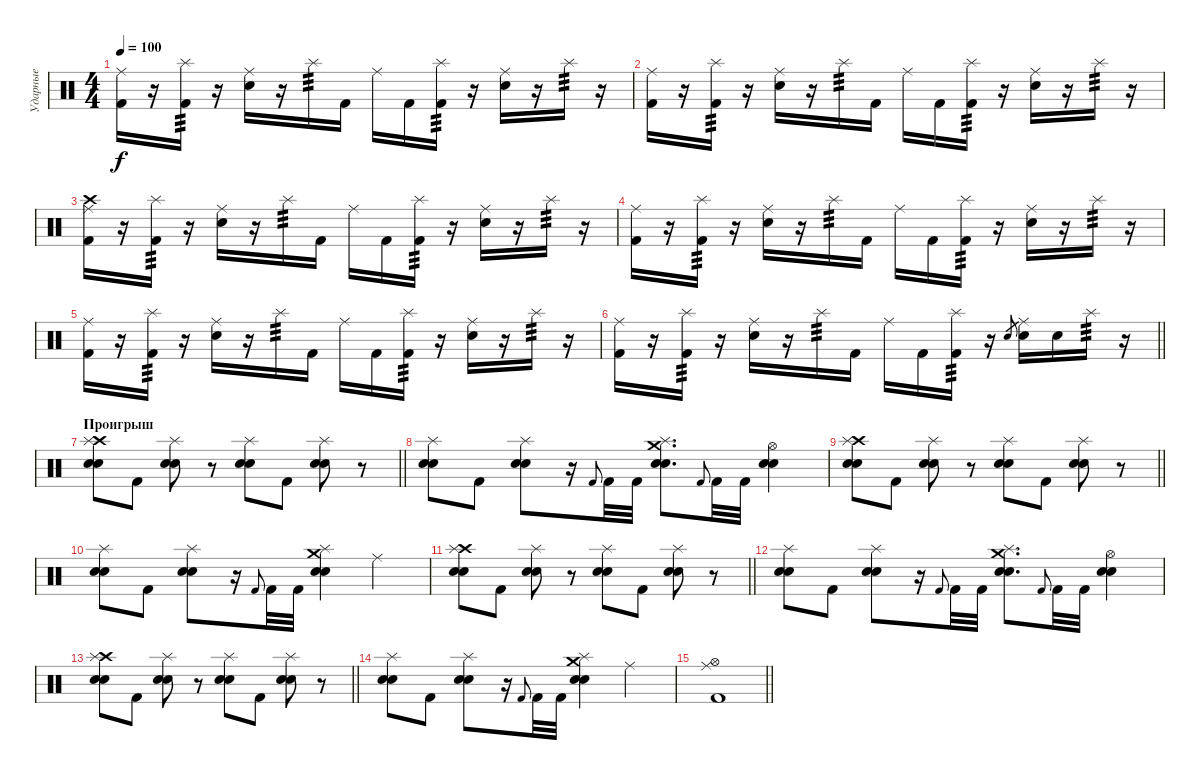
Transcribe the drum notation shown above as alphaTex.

\track ("Ударные" "Ударные") {instrument percussion}
\staff {score}
\articulation defaults
\ts (4 4)
\tempo 100
\clef neutral
\ks c
("Kick (hit) 2" "Ride (middle)").16{dy f} r.16 ("Kick (hit) 2" "Splash (hit)").16{tp 3} r.16 ("Electric Snare (hit)" "Ride (middle)").16 r.16 "Splash (hit)".16{tp 3} "Kick (hit) 2".16 "Ride (middle)".16 "Kick (hit) 2".16 ("Kick (hit) 2" "Splash (hit)").16{tp 3} r.16 ("Electric Snare (hit)" "Ride (middle)").16 r.16 "Splash (hit)".16{tp 3} r.16 |
("Kick (hit) 2" "Ride (middle)").16 r.16 ("Kick (hit) 2" "Splash (hit)").16{tp 3} r.16 ("Electric Snare (hit)" "Ride (middle)").16 r.16 "Splash (hit)".16{tp 3} "Kick (hit) 2".16 "Ride (middle)".16 "Kick (hit) 2".16 ("Kick (hit) 2" "Splash (hit)").16{tp 3} r.16 ("Electric Snare (hit)" "Ride (middle)").16 r.16 "Splash (hit)".16{tp 3} r.16 |
("Crash high (hit)" "Kick (hit) 2" "Ride (middle)").16 r.16 ("Kick (hit) 2" "Splash (hit)").16{tp 3} r.16 ("Electric Snare (hit)" "Ride (middle)").16 r.16 "Splash (hit)".16{tp 3} "Kick (hit) 2".16 "Ride (middle)".16 "Kick (hit) 2".16 ("Kick (hit) 2" "Splash (hit)").16{tp 3} r.16 ("Electric Snare (hit)" "Ride (middle)").16 r.16 "Splash (hit)".16{tp 3} r.16 |
("Kick (hit) 2" "Ride (middle)").16 r.16 ("Kick (hit) 2" "Splash (hit)").16{tp 3} r.16 ("Electric Snare (hit)" "Ride (middle)").16 r.16 "Splash (hit)".16{tp 3} "Kick (hit) 2".16 "Ride (middle)".16 "Kick (hit) 2".16 ("Kick (hit) 2" "Splash (hit)").16{tp 3} r.16 ("Electric Snare (hit)" "Ride (middle)").16 r.16 "Splash (hit)".16{tp 3} r.16 |
("Kick (hit) 2" "Ride (middle)").16 r.16 ("Kick (hit) 2" "Splash (hit)").16{tp 3} r.16 ("Electric Snare (hit)" "Ride (middle)").16 r.16 "Splash (hit)".16{tp 3} "Kick (hit) 2".16 "Ride (middle)".16 "Kick (hit) 2".16 ("Kick (hit) 2" "Splash (hit)").16{tp 3} r.16 ("Electric Snare (hit)" "Ride (middle)").16 r.16 "Splash (hit)".16{tp 3} r.16 |
\barLineRight lightlight
("Kick (hit) 2" "Ride (middle)").16 r.16 ("Kick (hit) 2" "Splash (hit)").16{tp 3} r.16 ("Electric Snare (hit)" "Ride (middle)").16 r.16 "Splash (hit)".16{tp 3} "Kick (hit) 2".16 "Ride (middle)".16 "Kick (hit) 2".16 ("Kick (hit) 2" "Splash (hit)").16{tp 3} r.16 "Electric Snare (hit)".8{gr} ("Electric Snare (hit)" "Ride (middle)").16 "Electric Snare (hit)".16 "Splash (hit)".16{tp 3} r.16 |
\section ("" "Проигрыш")
\barLineRight lightlight
("Crash high (hit)" "Electric Snare (hit)" "Electric Snare (hit)" "Splash (hit)").8 "Kick (hit) 2".8 ("Electric Snare (hit)" "Electric Snare (hit)" "Splash (hit)").8 r.8 ("Electric Snare (hit)" "Electric Snare (hit)" "Splash (hit)").8 "Kick (hit) 2".8 ("Electric Snare (hit)" "Electric Snare (hit)" "Splash (hit)").8 r.8 |
("Electric Snare (hit)" "Electric Snare (hit)" "Splash (hit)").8 "Kick (hit) 2".8 ("Electric Snare (hit)" "Electric Snare (hit)" "Splash (hit)").8 r.16 "Kick (hit) 2".8{gr onbeat} "Kick (hit) 2".32 "Kick (hit) 2".32 ("Crash medium (hit)" "Electric Snare (hit)" "Electric Snare (hit)" "Splash (hit)").8{d} "Kick (hit) 2".8{gr onbeat} "Kick (hit) 2".32 "Kick (hit) 2".32 ("Electric Snare (hit)" "Electric Snare (hit)" "Hi-Hat (open)").4 |
\barLineRight lightlight
("Crash high (hit)" "Electric Snare (hit)" "Electric Snare (hit)" "Splash (hit)").8 "Kick (hit) 2".8 ("Electric Snare (hit)" "Electric Snare (hit)" "Splash (hit)").8 r.8 ("Electric Snare (hit)" "Electric Snare (hit)" "Splash (hit)").8 "Kick (hit) 2".8 ("Electric Snare (hit)" "Electric Snare (hit)" "Splash (hit)").8 r.8 |
("Electric Snare (hit)" "Electric Snare (hit)" "Splash (hit)").8 "Kick (hit) 2".8 ("Electric Snare (hit)" "Electric Snare (hit)" "Splash (hit)").8 r.16 "Kick (hit) 2".8{gr onbeat} "Kick (hit) 2".32 "Kick (hit) 2".32 ("Crash medium (hit)" "Electric Snare (hit)" "Electric Snare (hit)" "Splash (hit)").4 "Ride (middle)".4 |
\barLineRight lightlight
("Crash high (hit)" "Electric Snare (hit)" "Electric Snare (hit)" "Splash (hit)").8 "Kick (hit) 2".8 ("Electric Snare (hit)" "Electric Snare (hit)" "Splash (hit)").8 r.8 ("Electric Snare (hit)" "Electric Snare (hit)" "Splash (hit)").8 "Kick (hit) 2".8 ("Electric Snare (hit)" "Electric Snare (hit)" "Splash (hit)").8 r.8 |
("Electric Snare (hit)" "Electric Snare (hit)" "Splash (hit)").8 "Kick (hit) 2".8 ("Electric Snare (hit)" "Electric Snare (hit)" "Splash (hit)").8 r.16 "Kick (hit) 2".8{gr onbeat} "Kick (hit) 2".32 "Kick (hit) 2".32 ("Crash medium (hit)" "Electric Snare (hit)" "Electric Snare (hit)" "Splash (hit)").8{d} "Kick (hit) 2".8{gr onbeat} "Kick (hit) 2".32 "Kick (hit) 2".32 ("Electric Snare (hit)" "Electric Snare (hit)" "Hi-Hat (open)").4 |
\barLineRight lightlight
("Crash high (hit)" "Electric Snare (hit)" "Electric Snare (hit)" "Splash (hit)").8 "Kick (hit) 2".8 ("Electric Snare (hit)" "Electric Snare (hit)" "Splash (hit)").8 r.8 ("Electric Snare (hit)" "Electric Snare (hit)" "Splash (hit)").8 "Kick (hit) 2".8 ("Electric Snare (hit)" "Electric Snare (hit)" "Splash (hit)").8 r.8 |
("Electric Snare (hit)" "Electric Snare (hit)" "Splash (hit)").8 "Kick (hit) 2".8 ("Electric Snare (hit)" "Electric Snare (hit)" "Splash (hit)").8 r.16 "Kick (hit) 2".8{gr onbeat} "Kick (hit) 2".32 "Kick (hit) 2".32 ("Crash medium (hit)" "Electric Snare (hit)" "Electric Snare (hit)" "Splash (hit)").4 "Ride (middle)".4 |
\barLineRight lightlight
("Hi-Hat (open)" "Kick (hit) 2" "Ride (middle)").1
